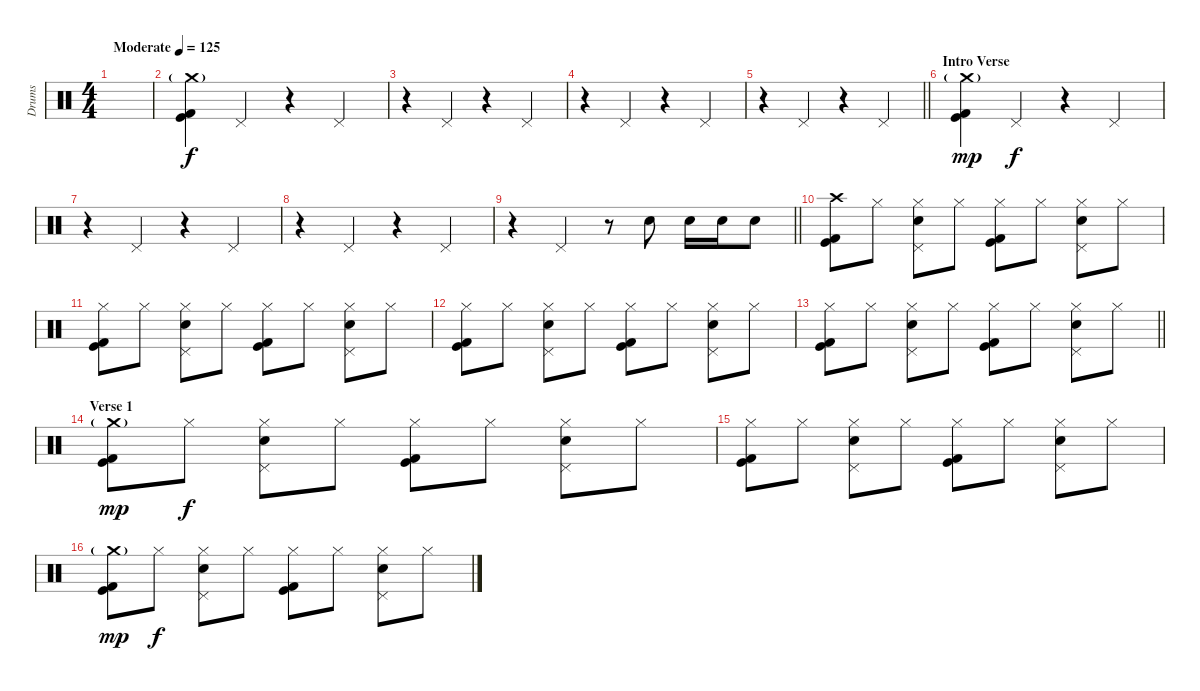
\track ("Drums" "Drums") {instrument percussion}
\staff {score}
\articulation defaults
\ts (4 4)
\tempo (125 "Moderate")
\clef neutral
\ks c
|
("Crash medium (hit)"{g} "Kick (hit)" "Kick (hit) 2").4 "Pedal Hi-Hat (hit)".4{dy f} r.4 "Pedal Hi-Hat (hit)".4 |
r.4 "Pedal Hi-Hat (hit)".4 r.4 "Pedal Hi-Hat (hit)".4 |
r.4 "Pedal Hi-Hat (hit)".4 r.4 "Pedal Hi-Hat (hit)".4 |
\barLineRight lightlight
r.4 "Pedal Hi-Hat (hit)".4 r.4 "Pedal Hi-Hat (hit)".4 |
\section ("" "Intro Verse")
("Crash medium (hit)"{g} "Kick (hit)" "Kick (hit) 2").4{dy mp} "Pedal Hi-Hat (hit)".4{dy f} r.4 "Pedal Hi-Hat (hit)".4 |
r.4 "Pedal Hi-Hat (hit)".4 r.4 "Pedal Hi-Hat (hit)".4 |
r.4 "Pedal Hi-Hat (hit)".4 r.4 "Pedal Hi-Hat (hit)".4 |
\barLineRight lightlight
r.4 "Pedal Hi-Hat (hit)".4 r.8 "Electric Snare (hit)".8 "Electric Snare (hit)".16 "Electric Snare (hit)".16 "Electric Snare (hit)".8 |
\section ("" "")
("Crash high (hit)" "Kick (hit)" "Kick (hit) 2").8 "Hi-Hat (closed)".8 ("Hi-Hat (closed)" "Pedal Hi-Hat (hit)" "Electric Snare (hit)").8 "Hi-Hat (closed)".8 ("Hi-Hat (closed)" "Kick (hit)" "Kick (hit) 2").8 "Hi-Hat (closed)".8 ("Hi-Hat (closed)" "Pedal Hi-Hat (hit)" "Electric Snare (hit)").8 "Hi-Hat (closed)".8 |
("Hi-Hat (closed)" "Kick (hit)" "Kick (hit) 2").8 "Hi-Hat (closed)".8 ("Hi-Hat (closed)" "Pedal Hi-Hat (hit)" "Electric Snare (hit)").8 "Hi-Hat (closed)".8 ("Hi-Hat (closed)" "Kick (hit)" "Kick (hit) 2").8 "Hi-Hat (closed)".8 ("Hi-Hat (closed)" "Pedal Hi-Hat (hit)" "Electric Snare (hit)").8 "Hi-Hat (closed)".8 |
("Hi-Hat (closed)" "Kick (hit)" "Kick (hit) 2").8 "Hi-Hat (closed)".8 ("Hi-Hat (closed)" "Pedal Hi-Hat (hit)" "Electric Snare (hit)").8 "Hi-Hat (closed)".8 ("Hi-Hat (closed)" "Kick (hit)" "Kick (hit) 2").8 "Hi-Hat (closed)".8 ("Hi-Hat (closed)" "Pedal Hi-Hat (hit)" "Electric Snare (hit)").8 "Hi-Hat (closed)".8 |
\barLineRight lightlight
("Hi-Hat (closed)" "Kick (hit)" "Kick (hit) 2").8 "Hi-Hat (closed)".8 ("Hi-Hat (closed)" "Pedal Hi-Hat (hit)" "Electric Snare (hit)").8 "Hi-Hat (closed)".8 ("Hi-Hat (closed)" "Kick (hit)" "Kick (hit) 2").8 "Hi-Hat (closed)".8 ("Hi-Hat (closed)" "Pedal Hi-Hat (hit)" "Electric Snare (hit)").8 "Hi-Hat (closed)".8 |
\section ("" "Verse 1")
("Crash medium (hit)"{g} "Kick (hit)" "Kick (hit) 2").8{dy mp} "Hi-Hat (closed)".8{dy f} ("Hi-Hat (closed)" "Pedal Hi-Hat (hit)" "Electric Snare (hit)").8 "Hi-Hat (closed)".8 ("Hi-Hat (closed)" "Kick (hit)" "Kick (hit) 2").8 "Hi-Hat (closed)".8 ("Hi-Hat (closed)" "Pedal Hi-Hat (hit)" "Electric Snare (hit)").8 "Hi-Hat (closed)".8 |
("Hi-Hat (closed)" "Kick (hit)" "Kick (hit) 2").8 "Hi-Hat (closed)".8 ("Hi-Hat (closed)" "Pedal Hi-Hat (hit)" "Electric Snare (hit)").8 "Hi-Hat (closed)".8 ("Hi-Hat (closed)" "Kick (hit)" "Kick (hit) 2").8 "Hi-Hat (closed)".8 ("Hi-Hat (closed)" "Pedal Hi-Hat (hit)" "Electric Snare (hit)").8 "Hi-Hat (closed)".8 |
("Crash medium (hit)"{g} "Kick (hit)" "Kick (hit) 2").8{dy mp} "Hi-Hat (closed)".8{dy f} ("Hi-Hat (closed)" "Pedal Hi-Hat (hit)" "Electric Snare (hit)").8 "Hi-Hat (closed)".8 ("Hi-Hat (closed)" "Kick (hit)" "Kick (hit) 2").8 "Hi-Hat (closed)".8 ("Hi-Hat (closed)" "Pedal Hi-Hat (hit)" "Electric Snare (hit)").8 "Hi-Hat (closed)".8
